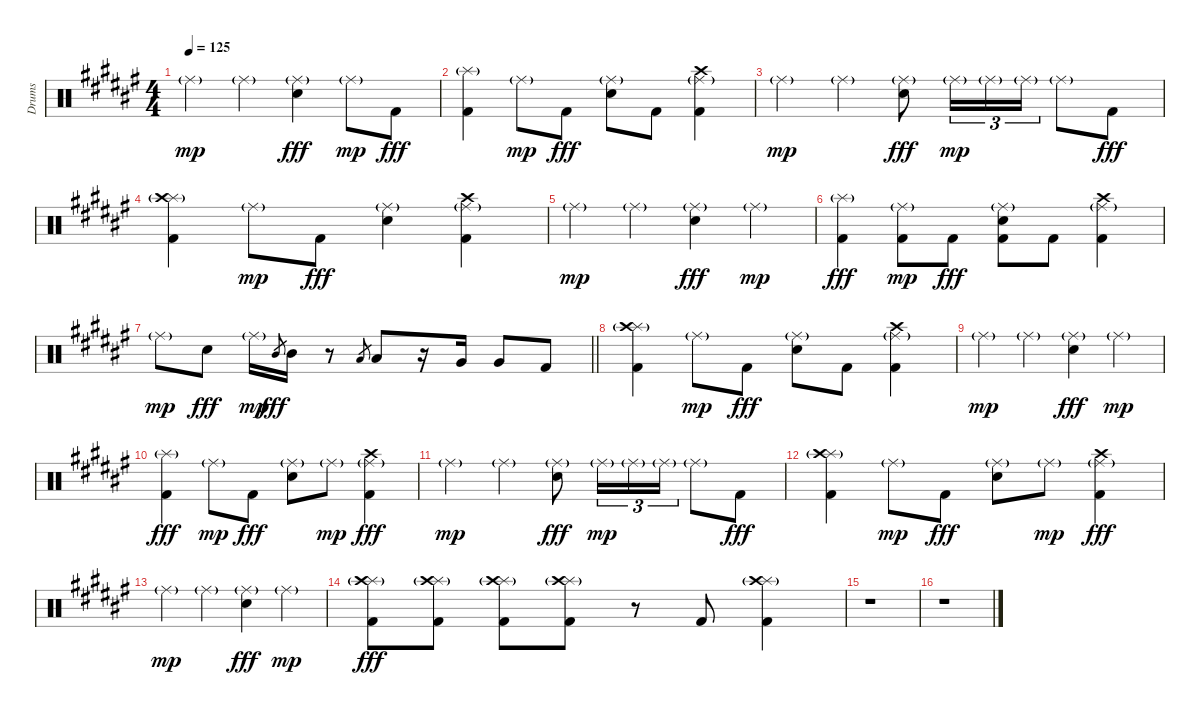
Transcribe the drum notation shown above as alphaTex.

\track ("Drums" "Drums") {instrument percussion}
\staff {score}
\articulation defaults
\ts (4 4)
\tempo 125
\clef neutral
\ks d#minor "Ride (middle)"{g}.4{dy mp} "Ride (middle)"{g}.4
("Ride (middle)"{g} "Snare (hit) 2").4{dy fff} "Ride (middle)"{g}.8{dy mp} "Kick (hit) 2".8{dy fff} |
("Splash (hit)"{g} "Kick (hit) 2").4 "Ride (middle)"{g}.8{dy mp} "Kick (hit) 2".8{dy fff} ("Ride (middle)"{g} "Snare (hit) 2").8 "Kick (hit) 2".8 ("Ride (middle)"{g} "Crash high (hit)" "Kick (hit) 2").4 |
"Ride (middle)"{g}.4{dy mp} "Ride (middle)"{g}.4 ("Ride (middle)"{g} "Snare (hit) 2").8{dy fff} "Ride (middle)"{g}.16{tu (3 2) dy mp} "Ride (middle)"{g}.16{tu (3 2)} "Ride (middle)"{g}.16{tu (3 2)} "Ride (middle)"{g}.8 "Kick (hit) 2".8{dy fff} |
("Splash (hit)"{g} "Crash high (hit)"{g} "Kick (hit) 2").4 "Ride (middle)"{g}.8{dy mp} "Kick (hit) 2".8{dy fff} ("Ride (middle)"{g} "Snare (hit) 2").4 ("Ride (middle)"{g} "Crash high (hit)" "Kick (hit) 2").4 |
"Ride (middle)"{g}.4{dy mp} "Ride (middle)"{g}.4 ("Ride (middle)"{g} "Snare (hit) 2").4{dy fff} "Ride (middle)"{g}.4{dy mp} |
("Splash (hit)"{g} "Kick (hit) 2").4{dy fff} ("Ride (middle)"{g} "Kick (hit) 2").8{dy mp} "Kick (hit) 2".8{dy fff} ("Ride (middle)"{g} "Snare (hit) 2" "Kick (hit) 2").8 "Kick (hit) 2".8 ("Ride (middle)"{g} "Crash high (hit)" "Kick (hit) 2").4 |
\barLineRight lightlight "Ride (middle)"{g}.8{dy mp} "Snare (hit) 2".8{dy fff} "Ride (middle)"{g}.16{dy mp} "Mid Tom (hit)".8{gr dy fff} "Mid Tom (hit)".16
r.8 "Low Tom (hit)".8{gr} "Low Tom (hit)".8 r.16 "Very Low Tom (hit)".16 "Very Low Tom (hit)".8 "Kick (hit) 2".8 |
\section ("" "")
("Splash (hit)"{g} "Crash high (hit)"{g} "Kick (hit) 2").4 "Ride (middle)"{g}.8{dy mp} "Kick (hit) 2".8{dy fff} ("Ride (middle)"{g} "Snare (hit) 2").8 "Kick (hit) 2".8 ("Ride (middle)"{g} "Crash high (hit)" "Kick (hit) 2").4 |
"Ride (middle)"{g}.4{dy mp} "Ride (middle)"{g}.4 ("Ride (middle)"{g} "Snare (hit) 2").4{dy fff} "Ride (middle)"{g}.4{dy mp} |
("Splash (hit)"{g} "Kick (hit) 2").4{dy fff} "Ride (middle)"{g}.8{dy mp} "Kick (hit) 2".8{dy fff} ("Ride (middle)"{g} "Snare (hit) 2").8 "Ride (middle)"{g}.8{dy mp} ("Ride (middle)"{g} "Crash high (hit)" "Kick (hit) 2").4{dy fff} |
"Ride (middle)"{g}.4{dy mp} "Ride (middle)"{g}.4 ("Ride (middle)"{g} "Snare (hit) 2").8{dy fff} "Ride (middle)"{g}.16{tu (3 2) dy mp} "Ride (middle)"{g}.16{tu (3 2)} "Ride (middle)"{g}.16{tu (3 2)} "Ride (middle)"{g}.8 "Kick (hit) 2".8{dy fff} |
("Splash (hit)"{g} "Crash high (hit)"{g} "Kick (hit) 2").4 "Ride (middle)"{g}.8{dy mp} "Kick (hit) 2".8{dy fff} ("Ride (middle)"{g} "Snare (hit) 2").8 "Ride (middle)"{g}.8{dy mp} ("Ride (middle)"{g} "Crash high (hit)" "Kick (hit) 2").4{dy fff} |
"Ride (middle)"{g}.4{dy mp} "Ride (middle)"{g}.4 ("Ride (middle)"{g} "Snare (hit) 2").4{dy fff} "Ride (middle)"{g}.4{dy mp} |
("Splash (hit)"{g} "Crash high (hit)"{g} "Kick (hit) 2").8{dy fff} ("Splash (hit)"{g} "Crash high (hit)"{g} "Kick (hit) 2").8 ("Splash (hit)"{g} "Crash high (hit)"{g} "Kick (hit) 2").8 ("Splash (hit)"{g} "Crash high (hit)"{g} "Kick (hit) 2").8 r.8 "Kick (hit) 2".8 ("Splash (hit)"{g} "Crash high (hit)"{g} "Kick (hit) 2").4 |
r.1 |
r.1
